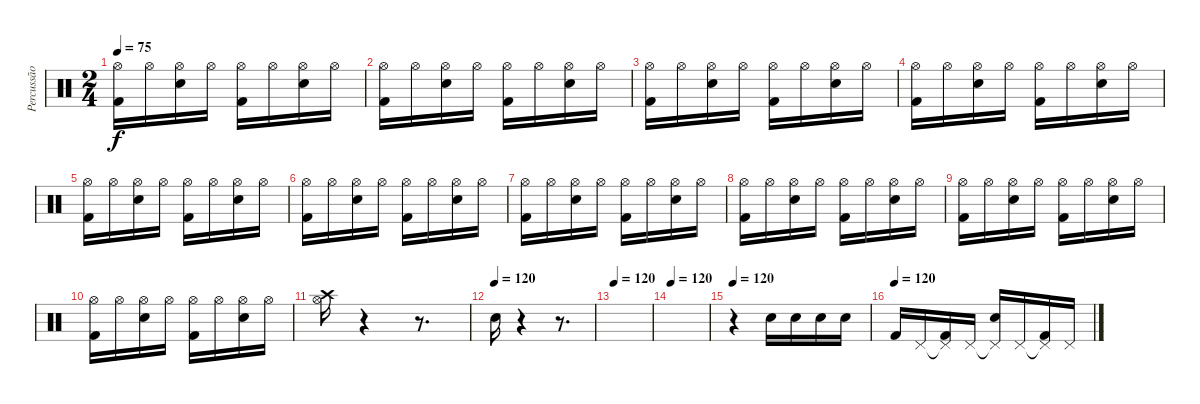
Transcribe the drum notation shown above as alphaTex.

\track ("Percussão" "Percussão") {instrument percussion}
\staff {score}
\articulation defaults
\ts (2 4)
\tempo 75
\clef neutral
\ks c
("Hi-Hat (open)" "Kick (hit) 2").16{dy f} "Hi-Hat (open)".16 ("Hi-Hat (open)" "Snare (hit) 2").16 "Hi-Hat (open)".16 ("Hi-Hat (open)" "Kick (hit) 2").16 "Hi-Hat (open)".16 ("Hi-Hat (open)" "Snare (hit) 2").16 "Hi-Hat (open)".16 |
("Hi-Hat (open)" "Kick (hit) 2").16 "Hi-Hat (open)".16 ("Hi-Hat (open)" "Snare (hit) 2").16 "Hi-Hat (open)".16 ("Hi-Hat (open)" "Kick (hit) 2").16 "Hi-Hat (open)".16 ("Hi-Hat (open)" "Snare (hit) 2").16 "Hi-Hat (open)".16 |
("Hi-Hat (open)" "Kick (hit) 2").16 "Hi-Hat (open)".16 ("Hi-Hat (open)" "Snare (hit) 2").16 "Hi-Hat (open)".16 ("Hi-Hat (open)" "Kick (hit) 2").16 "Hi-Hat (open)".16 ("Hi-Hat (open)" "Snare (hit) 2").16 "Hi-Hat (open)".16 |
("Hi-Hat (open)" "Kick (hit) 2").16 "Hi-Hat (open)".16 ("Hi-Hat (open)" "Snare (hit) 2").16 "Hi-Hat (open)".16 ("Hi-Hat (open)" "Kick (hit) 2").16 "Hi-Hat (open)".16 ("Hi-Hat (open)" "Snare (hit) 2").16 "Hi-Hat (open)".16 |
("Hi-Hat (open)" "Kick (hit) 2").16 "Hi-Hat (open)".16 ("Hi-Hat (open)" "Snare (hit) 2").16 "Hi-Hat (open)".16 ("Hi-Hat (open)" "Kick (hit) 2").16 "Hi-Hat (open)".16 ("Hi-Hat (open)" "Snare (hit) 2").16 "Hi-Hat (open)".16 |
("Hi-Hat (open)" "Kick (hit) 2").16 "Hi-Hat (open)".16 ("Hi-Hat (open)" "Snare (hit) 2").16 "Hi-Hat (open)".16 ("Hi-Hat (open)" "Kick (hit) 2").16 "Hi-Hat (open)".16 ("Hi-Hat (open)" "Snare (hit) 2").16 "Hi-Hat (open)".16 |
("Hi-Hat (open)" "Kick (hit) 2").16 "Hi-Hat (open)".16 ("Hi-Hat (open)" "Snare (hit) 2").16 "Hi-Hat (open)".16 ("Hi-Hat (open)" "Kick (hit) 2").16 "Hi-Hat (open)".16 ("Hi-Hat (open)" "Snare (hit) 2").16 "Hi-Hat (open)".16 |
("Hi-Hat (open)" "Kick (hit) 2").16 "Hi-Hat (open)".16 ("Hi-Hat (open)" "Snare (hit) 2").16 "Hi-Hat (open)".16 ("Hi-Hat (open)" "Kick (hit) 2").16 "Hi-Hat (open)".16 ("Hi-Hat (open)" "Snare (hit) 2").16 "Hi-Hat (open)".16 |
("Hi-Hat (open)" "Kick (hit) 2").16 "Hi-Hat (open)".16 ("Hi-Hat (open)" "Snare (hit) 2").16 "Hi-Hat (open)".16 ("Hi-Hat (open)" "Kick (hit) 2").16 "Hi-Hat (open)".16 ("Hi-Hat (open)" "Snare (hit) 2").16 "Hi-Hat (open)".16 |
("Hi-Hat (open)" "Kick (hit) 2").16 "Hi-Hat (open)".16 ("Hi-Hat (open)" "Snare (hit) 2").16 "Hi-Hat (open)".16 ("Hi-Hat (open)" "Kick (hit) 2").16 "Hi-Hat (open)".16 ("Hi-Hat (open)" "Snare (hit) 2").16 "Hi-Hat (open)".16 |
("Hi-Hat (open)" "Crash high (hit)").16 r.4 r.8{d} |
\tempo (120)
"Snare (hit) 2".16 r.4 r.8{d} |
\tempo 120
|
\tempo 120
|
\tempo 120
r.4 "Snare (hit) 2".16 "Snare (hit) 2".16 "Snare (hit) 2".16 "Snare (hit) 2".16 |
\tempo (120)
"Kick (hit) 2".16 "Pedal Hi-Hat (hit)".16 ("Pedal Hi-Hat (hit)"{t} "Kick (hit) 2").16 "Pedal Hi-Hat (hit)".16 ("Pedal Hi-Hat (hit)"{t} "Snare (hit) 2").16 "Pedal Hi-Hat (hit)".16 ("Pedal Hi-Hat (hit)"{t} "Kick (hit) 2").16 "Pedal Hi-Hat (hit)".16
